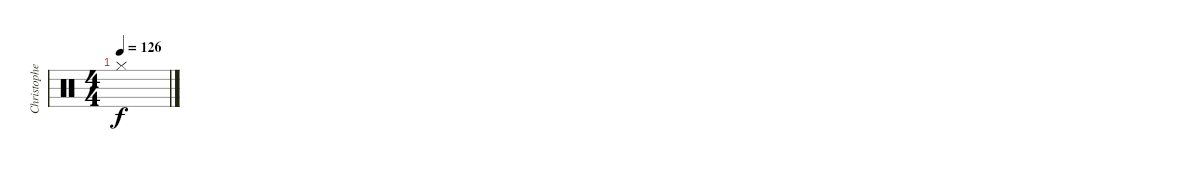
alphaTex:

\track ("Christopher - Drums" "Christophe") {mute instrument percussion}
\staff {score}
\articulation defaults
\ts (4 4)
\tempo 126
\clef neutral
\ks c "Hi-Hat (closed)".1{dy f}
